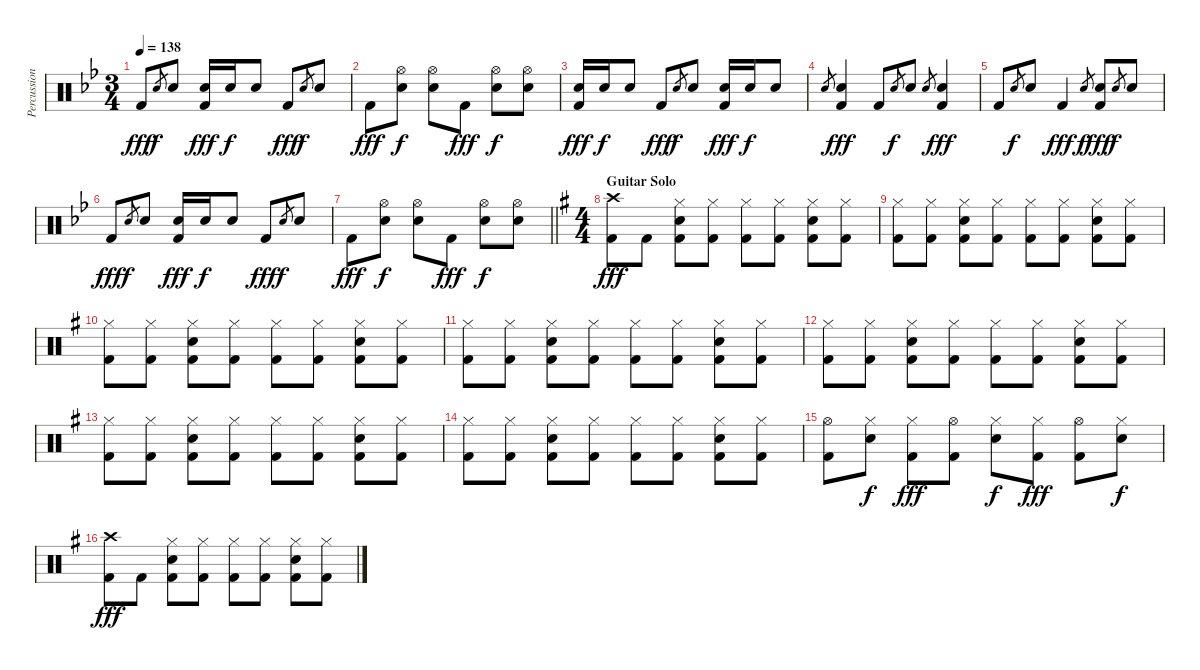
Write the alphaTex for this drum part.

\track ("Percussion" "Percussion") {instrument percussion}
\staff {score}
\articulation defaults
\ts (3 4)
\tempo 138
\clef neutral
\ks gminor "Kick (hit) 2".8{dy fff} "Electric Snare (hit)".8{gr dy f} "Electric Snare (hit)".8
("Electric Snare (hit)" "Kick (hit) 2").16{dy fff} "Electric Snare (hit)".16{dy f} "Electric Snare (hit)".8 "Kick (hit) 2".8{dy fff} "Electric Snare (hit)".8{gr dy f} "Electric Snare (hit)".8 |
"Kick (hit) 2".8{dy fff} ("Hi-Hat (open)" "Electric Snare (hit)").8{dy f} ("Hi-Hat (open)" "Electric Snare (hit)").8 "Kick (hit) 2".8{dy fff} ("Hi-Hat (open)" "Electric Snare (hit)").8{dy f} ("Hi-Hat (open)" "Electric Snare (hit)").8 |
("Electric Snare (hit)" "Kick (hit) 2").16{dy fff} "Electric Snare (hit)".16{dy f} "Electric Snare (hit)".8 "Kick (hit) 2".8{dy fff} "Electric Snare (hit)".8{gr dy f} "Electric Snare (hit)".8 ("Electric Snare (hit)" "Kick (hit) 2").16{dy fff} "Electric Snare (hit)".16{dy f} "Electric Snare (hit)".8 |
"Electric Snare (hit)".8{gr} ("Electric Snare (hit)" "Kick (hit) 2").4{dy fff} "Kick (hit) 2".8 "Electric Snare (hit)".8{gr dy f} "Electric Snare (hit)".8 "Electric Snare (hit)".8{gr} ("Electric Snare (hit)" "Kick (hit) 2").4{dy fff} |
"Kick (hit) 2".8 "Electric Snare (hit)".8{gr dy f} "Electric Snare (hit)".8 "Kick (hit) 2".4{dy fff} "Electric Snare (hit)".8{gr dy f} ("Electric Snare (hit)" "Kick (hit) 2").8{dy fff} "Electric Snare (hit)".8{gr dy f} "Electric Snare (hit)".8 |
"Kick (hit) 2".8{dy fff} "Electric Snare (hit)".8{gr dy f} "Electric Snare (hit)".8 ("Electric Snare (hit)" "Kick (hit) 2").16{dy fff} "Electric Snare (hit)".16{dy f} "Electric Snare (hit)".8 "Kick (hit) 2".8{dy fff} "Electric Snare (hit)".8{gr dy f} "Electric Snare (hit)".8 |
\barLineRight lightlight "Kick (hit) 2".8{dy fff}
("Hi-Hat (open)" "Electric Snare (hit)").8{dy f} ("Hi-Hat (open)" "Electric Snare (hit)").8 "Kick (hit) 2".8{dy fff} ("Hi-Hat (open)" "Electric Snare (hit)").8{dy f} ("Hi-Hat (open)" "Electric Snare (hit)").8 |
\ts (4 4)
\section ("" "Guitar Solo")
\ks eminor
("Crash high (hit)" "Kick (hit) 2").8{dy fff} "Kick (hit) 2".8 ("Hi-Hat (closed)" "Electric Snare (hit)" "Kick (hit) 2").8 ("Hi-Hat (closed)" "Kick (hit) 2").8 ("Hi-Hat (closed)" "Kick (hit) 2").8 ("Hi-Hat (closed)" "Kick (hit) 2").8 ("Hi-Hat (closed)" "Electric Snare (hit)" "Kick (hit) 2").8 ("Hi-Hat (closed)" "Kick (hit) 2").8 |
("Hi-Hat (closed)" "Kick (hit) 2").8 ("Hi-Hat (closed)" "Kick (hit) 2").8 ("Hi-Hat (closed)" "Electric Snare (hit)" "Kick (hit) 2").8 ("Hi-Hat (closed)" "Kick (hit) 2").8 ("Hi-Hat (closed)" "Kick (hit) 2").8 ("Hi-Hat (closed)" "Kick (hit) 2").8 ("Hi-Hat (closed)" "Electric Snare (hit)" "Kick (hit) 2").8 ("Hi-Hat (closed)" "Kick (hit) 2").8 |
("Hi-Hat (closed)" "Kick (hit) 2").8 ("Hi-Hat (closed)" "Kick (hit) 2").8 ("Hi-Hat (closed)" "Electric Snare (hit)" "Kick (hit) 2").8 ("Hi-Hat (closed)" "Kick (hit) 2").8 ("Hi-Hat (closed)" "Kick (hit) 2").8 ("Hi-Hat (closed)" "Kick (hit) 2").8 ("Hi-Hat (closed)" "Electric Snare (hit)" "Kick (hit) 2").8 ("Hi-Hat (closed)" "Kick (hit) 2").8 |
("Hi-Hat (closed)" "Kick (hit) 2").8 ("Hi-Hat (closed)" "Kick (hit) 2").8 ("Hi-Hat (closed)" "Electric Snare (hit)" "Kick (hit) 2").8 ("Hi-Hat (closed)" "Kick (hit) 2").8 ("Hi-Hat (closed)" "Kick (hit) 2").8 ("Hi-Hat (closed)" "Kick (hit) 2").8 ("Hi-Hat (closed)" "Electric Snare (hit)" "Kick (hit) 2").8 ("Hi-Hat (closed)" "Kick (hit) 2").8 |
("Hi-Hat (closed)" "Kick (hit) 2").8 ("Hi-Hat (closed)" "Kick (hit) 2").8 ("Hi-Hat (closed)" "Electric Snare (hit)" "Kick (hit) 2").8 ("Hi-Hat (closed)" "Kick (hit) 2").8 ("Hi-Hat (closed)" "Kick (hit) 2").8 ("Hi-Hat (closed)" "Kick (hit) 2").8 ("Hi-Hat (closed)" "Electric Snare (hit)" "Kick (hit) 2").8 ("Hi-Hat (closed)" "Kick (hit) 2").8 |
("Hi-Hat (closed)" "Kick (hit) 2").8 ("Hi-Hat (closed)" "Kick (hit) 2").8 ("Hi-Hat (closed)" "Electric Snare (hit)" "Kick (hit) 2").8 ("Hi-Hat (closed)" "Kick (hit) 2").8 ("Hi-Hat (closed)" "Kick (hit) 2").8 ("Hi-Hat (closed)" "Kick (hit) 2").8 ("Hi-Hat (closed)" "Electric Snare (hit)" "Kick (hit) 2").8 ("Hi-Hat (closed)" "Kick (hit) 2").8 |
("Hi-Hat (closed)" "Kick (hit) 2").8 ("Hi-Hat (closed)" "Kick (hit) 2").8 ("Hi-Hat (closed)" "Electric Snare (hit)" "Kick (hit) 2").8 ("Hi-Hat (closed)" "Kick (hit) 2").8 ("Hi-Hat (closed)" "Kick (hit) 2").8 ("Hi-Hat (closed)" "Kick (hit) 2").8 ("Hi-Hat (closed)" "Electric Snare (hit)" "Kick (hit) 2").8 ("Hi-Hat (closed)" "Kick (hit) 2").8 |
("Hi-Hat (open)" "Kick (hit) 2").8 ("Hi-Hat (closed)" "Electric Snare (hit)").8{dy f} ("Hi-Hat (closed)" "Kick (hit) 2").8{dy fff} ("Hi-Hat (open)" "Kick (hit) 2").8 ("Hi-Hat (closed)" "Electric Snare (hit)").8{dy f} ("Hi-Hat (closed)" "Kick (hit) 2").8{dy fff} ("Hi-Hat (open)" "Kick (hit) 2").8 ("Hi-Hat (closed)" "Electric Snare (hit)").8{dy f} |
("Crash high (hit)" "Kick (hit) 2").8{dy fff} "Kick (hit) 2".8 ("Hi-Hat (closed)" "Electric Snare (hit)" "Kick (hit) 2").8 ("Hi-Hat (closed)" "Kick (hit) 2").8 ("Hi-Hat (closed)" "Kick (hit) 2").8 ("Hi-Hat (closed)" "Kick (hit) 2").8 ("Hi-Hat (closed)" "Electric Snare (hit)" "Kick (hit) 2").8 ("Hi-Hat (closed)" "Kick (hit) 2").8
